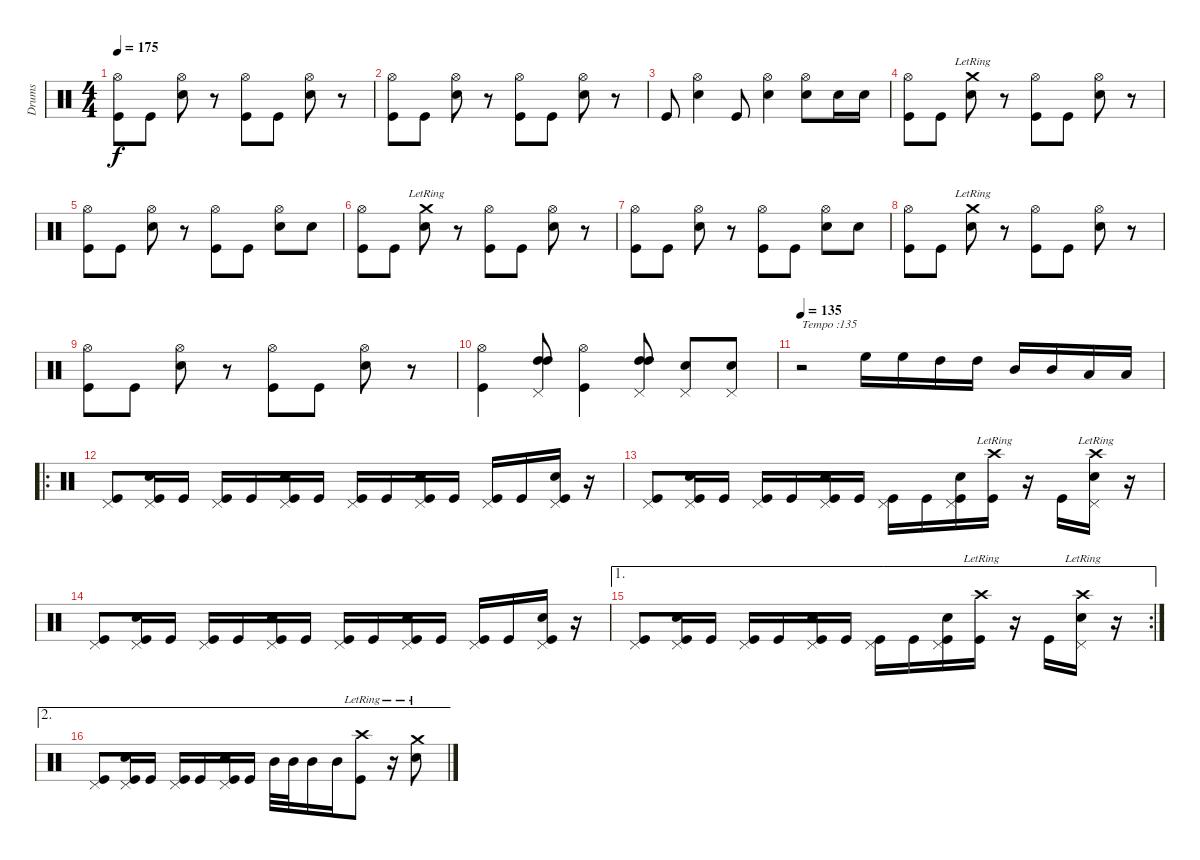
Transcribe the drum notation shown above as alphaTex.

\track ("Drums" "Drums") {instrument percussion}
\staff {score}
\articulation defaults
\ts (4 4)
\tempo 175
\clef neutral
\ks c
("Hi-Hat (open)" "Kick (hit)").8{dy f} "Kick (hit)".8 ("Hi-Hat (open)" "Snare (hit) 2").8 r.8 ("Hi-Hat (open)" "Kick (hit)").8 "Kick (hit)".8 ("Hi-Hat (open)" "Snare (hit) 2").8 r.8 |
("Hi-Hat (open)" "Kick (hit)").8 "Kick (hit)".8 ("Hi-Hat (open)" "Snare (hit) 2").8 r.8 ("Hi-Hat (open)" "Kick (hit)").8 "Kick (hit)".8 ("Hi-Hat (open)" "Snare (hit) 2").8 r.8 |
"Kick (hit)".8 ("Hi-Hat (open)" "Snare (hit) 2").4 "Kick (hit)".8 ("Hi-Hat (open)" "Snare (hit) 2").4 ("Hi-Hat (open)" "Snare (hit) 2").8 "Snare (hit) 2".16 "Snare (hit) 2".16 |
("Hi-Hat (open)" "Kick (hit)").8 "Kick (hit)".8 ("Crash medium (hit)"{lr} "Snare (hit) 2").8 r.8 ("Hi-Hat (open)" "Kick (hit)").8 "Kick (hit)".8 ("Hi-Hat (open)" "Snare (hit) 2").8 r.8 |
("Hi-Hat (open)" "Kick (hit)").8 "Kick (hit)".8 ("Hi-Hat (open)" "Snare (hit) 2").8 r.8 ("Hi-Hat (open)" "Kick (hit)").8 "Kick (hit)".8 ("Hi-Hat (open)" "Snare (hit) 2").8 "Snare (hit) 2".8 |
("Hi-Hat (open)" "Kick (hit)").8 "Kick (hit)".8 ("Crash medium (hit)"{lr} "Snare (hit) 2").8 r.8 ("Hi-Hat (open)" "Kick (hit)").8 "Kick (hit)".8 ("Hi-Hat (open)" "Snare (hit) 2").8 r.8 |
("Hi-Hat (open)" "Kick (hit)").8 "Kick (hit)".8 ("Hi-Hat (open)" "Snare (hit) 2").8 r.8 ("Hi-Hat (open)" "Kick (hit)").8 "Kick (hit)".8 ("Hi-Hat (open)" "Snare (hit) 2").8 "Snare (hit) 2".8 |
("Hi-Hat (open)" "Kick (hit)").8 "Kick (hit)".8 ("Crash medium (hit)"{lr} "Snare (hit) 2").8 r.8 ("Hi-Hat (open)" "Kick (hit)").8 "Kick (hit)".8 ("Hi-Hat (open)" "Snare (hit) 2").8 r.8 |
("Hi-Hat (open)" "Kick (hit)").8 "Kick (hit)".8 ("Hi-Hat (open)" "Snare (hit) 2").8 r.8 ("Hi-Hat (open)" "Kick (hit)").8 "Kick (hit)".8 ("Hi-Hat (open)" "Snare (hit) 2").8 r.8 |
("Hi-Hat (open)" "Kick (hit)").4 ("Pedal Hi-Hat (hit)" "High Tom (hit)" "High Tom (hit)").8 ("Hi-Hat (open)" "Kick (hit)").4 ("Pedal Hi-Hat (hit)" "High Tom (hit)" "High Tom (hit)").8 ("Pedal Hi-Hat (hit)" "Snare (hit) 2").8 ("Pedal Hi-Hat (hit)" "Snare (hit) 2").8 |
\tempo 135
r.2{txt "Tempo :135"} "High Floor Tom (hit)".16 "High Floor Tom (hit)".16 "High Tom (hit)".16 "High Tom (hit)".16 "Mid Tom (hit)".16 "Mid Tom (hit)".16 "Low Tom (hit)".16 "Low Tom (hit)".16 |
\ro
("Pedal Hi-Hat (hit)" "Kick (hit)").8 ("Pedal Hi-Hat (hit)" "Snare (hit) 2" "Kick (hit)").16 "Kick (hit)".16 ("Pedal Hi-Hat (hit)" "Kick (hit)").16 "Kick (hit)".16 ("Pedal Hi-Hat (hit)" "Snare (hit) 2" "Kick (hit)").16 "Kick (hit)".16 ("Pedal Hi-Hat (hit)" "Kick (hit)").16 "Kick (hit)".16 ("Pedal Hi-Hat (hit)" "Snare (hit) 2" "Kick (hit)").16 "Kick (hit)".16 ("Pedal Hi-Hat (hit)" "Kick (hit)").16 "Kick (hit)".16 ("Pedal Hi-Hat (hit)" "Snare (hit) 2" "Kick (hit)").16 r.16 |
("Pedal Hi-Hat (hit)" "Kick (hit)").8 ("Pedal Hi-Hat (hit)" "Snare (hit) 2" "Kick (hit)").16 "Kick (hit)".16 ("Pedal Hi-Hat (hit)" "Kick (hit)").16 "Kick (hit)".16 ("Pedal Hi-Hat (hit)" "Snare (hit) 2" "Kick (hit)").16 "Kick (hit)".16 ("Pedal Hi-Hat (hit)" "Kick (hit)").16 "Kick (hit)".16 ("Pedal Hi-Hat (hit)" "Snare (hit) 2" "Kick (hit)").16 ("Crash high (hit)"{lr} "Kick (hit)").16 r.16 "Kick (hit)".16 ("Crash high (hit)"{lr} "Pedal Hi-Hat (hit)" "Snare (hit) 2").16 r.16 |
("Pedal Hi-Hat (hit)" "Kick (hit)").8 ("Pedal Hi-Hat (hit)" "Snare (hit) 2" "Kick (hit)").16 "Kick (hit)".16 ("Pedal Hi-Hat (hit)" "Kick (hit)").16 "Kick (hit)".16 ("Pedal Hi-Hat (hit)" "Snare (hit) 2" "Kick (hit)").16 "Kick (hit)".16 ("Pedal Hi-Hat (hit)" "Kick (hit)").16 "Kick (hit)".16 ("Pedal Hi-Hat (hit)" "Snare (hit) 2" "Kick (hit)").16 "Kick (hit)".16 ("Pedal Hi-Hat (hit)" "Kick (hit)").16 "Kick (hit)".16 ("Pedal Hi-Hat (hit)" "Snare (hit) 2" "Kick (hit)").16 r.16 |
\ae 1
\rc 2
("Pedal Hi-Hat (hit)" "Kick (hit)").8 ("Pedal Hi-Hat (hit)" "Snare (hit) 2" "Kick (hit)").16 "Kick (hit)".16 ("Pedal Hi-Hat (hit)" "Kick (hit)").16 "Kick (hit)".16 ("Pedal Hi-Hat (hit)" "Snare (hit) 2" "Kick (hit)").16 "Kick (hit)".16 ("Pedal Hi-Hat (hit)" "Kick (hit)").16 "Kick (hit)".16 ("Pedal Hi-Hat (hit)" "Snare (hit) 2" "Kick (hit)").16 ("Crash high (hit)"{lr} "Kick (hit)").16 r.16 "Kick (hit)".16 ("Crash high (hit)"{lr} "Pedal Hi-Hat (hit)" "Snare (hit) 2").16 r.16 |
\ae 2
("Pedal Hi-Hat (hit)" "Kick (hit)").8 ("Pedal Hi-Hat (hit)" "Snare (hit) 2" "Kick (hit)").16 "Kick (hit)".16 ("Pedal Hi-Hat (hit)" "Kick (hit)").16 "Kick (hit)".16 ("Pedal Hi-Hat (hit)" "Snare (hit) 2" "Kick (hit)").16 "Kick (hit)".16 "Mid Tom (hit)".32 "Mid Tom (hit)".32 "Mid Tom (hit)".16 "Mid Tom (hit)".16 ("Crash high (hit)"{lr} "Kick (hit)").8 r.16 ("Crash medium (hit)"{lr} "Snare (hit) 2").8
